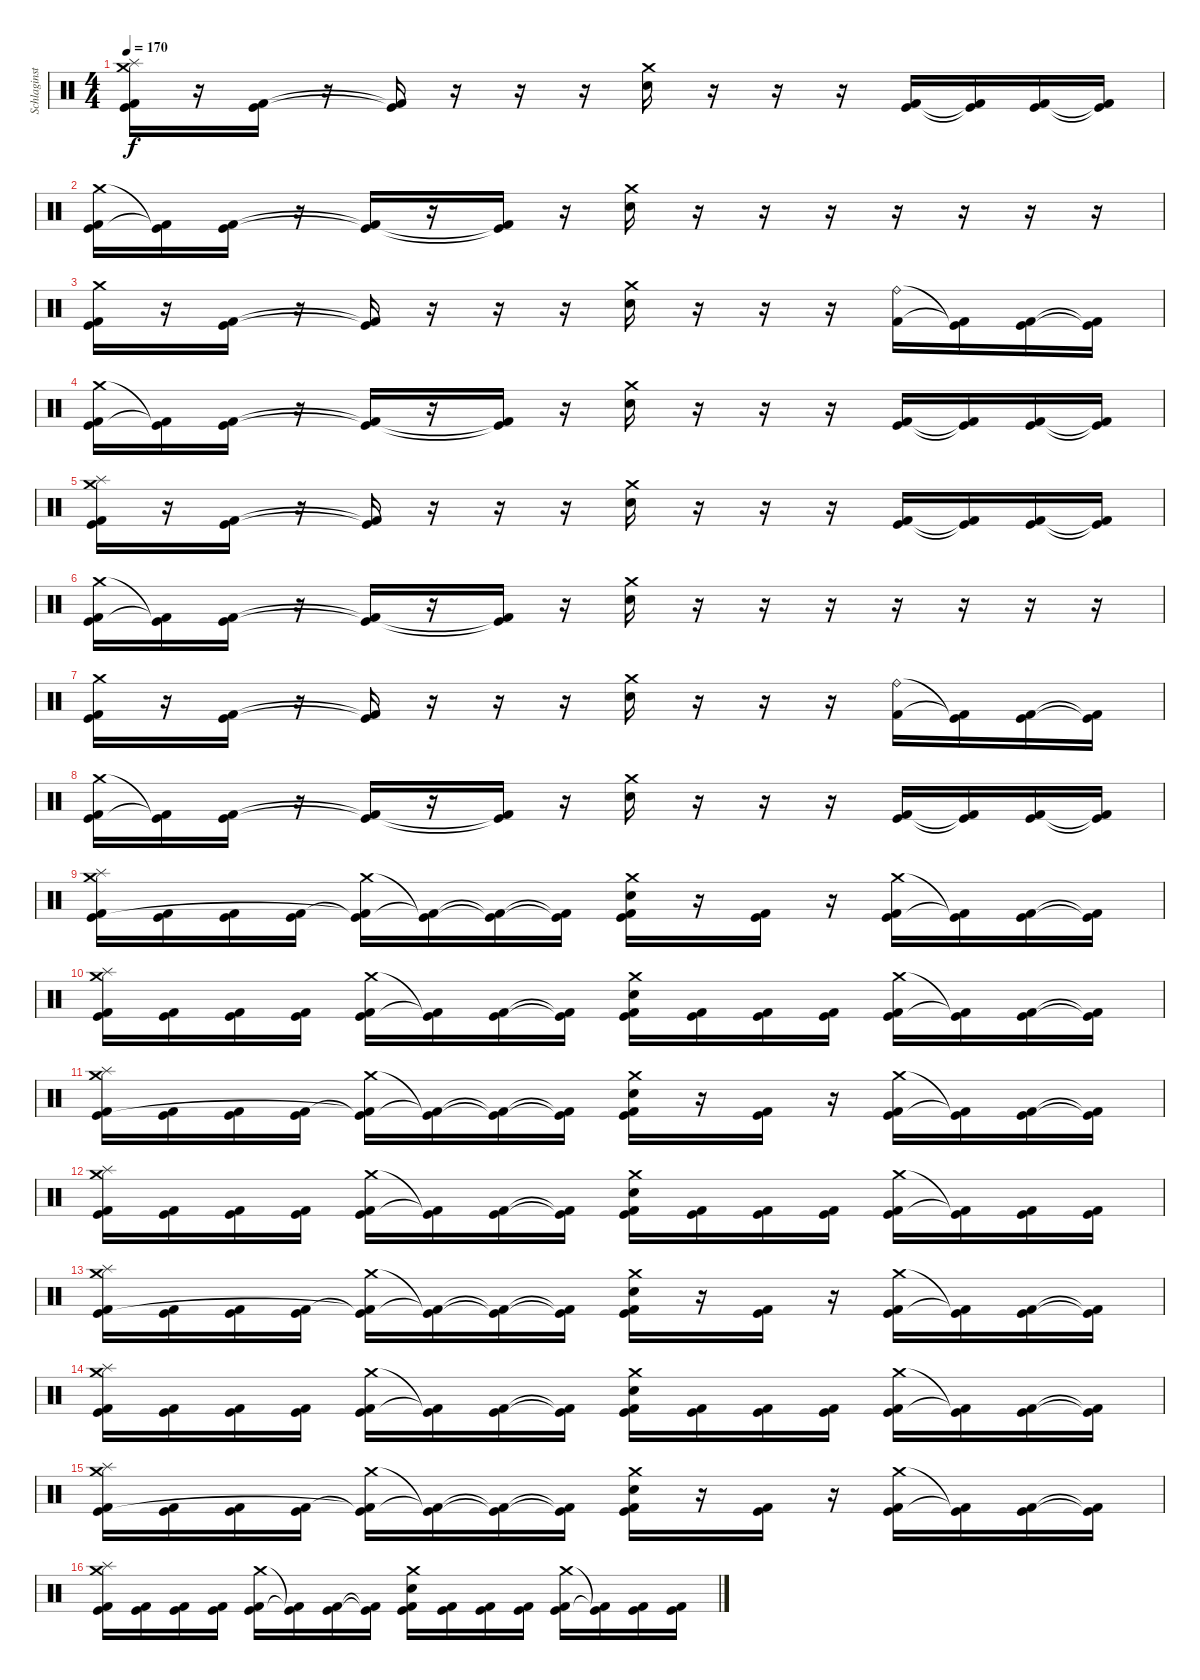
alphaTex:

\track ("Schlaginstrumente - Auswahl" "Schlaginst") {instrument percussion}
\staff {score}
\articulation defaults
\ts (4 4)
\tempo 170
\clef neutral
\ks c
("Crash medium (hit)" "Splash (hit)" "Kick (hit)" "Kick (hit) 2").16{dy f} r.16 ("Kick (hit)" "Kick (hit) 2").16 r.16 ("Kick (hit)"{t} "Kick (hit) 2"{t}).16 r.16 r.16 r.16 ("Crash medium (hit)" "Electric Snare (hit)").16 r.16 r.16 r.16 ("Kick (hit)" "Kick (hit) 2").16 ("Kick (hit)"{t} "Kick (hit) 2"{t}).16 ("Kick (hit)" "Kick (hit) 2").16 ("Kick (hit)"{t} "Kick (hit) 2"{t}).16 |
("Crash medium (hit)" "Kick (hit)" "Kick (hit) 2").16 ("Kick (hit)"{t} "Kick (hit) 2"{t}).16 ("Kick (hit)" "Kick (hit) 2").16 r.16 ("Kick (hit)"{t} "Kick (hit) 2"{t}).16 r.16 ("Kick (hit)"{t} "Kick (hit) 2"{t}).16 r.16 ("Crash medium (hit)" "Electric Snare (hit)").16 r.16 r.16 r.16 r.16 r.16 r.16 r.16 |
("Crash medium (hit)" "Kick (hit)" "Kick (hit) 2").16 r.16 ("Kick (hit)" "Kick (hit) 2").16 r.16 ("Kick (hit)"{t} "Kick (hit) 2"{t}).16 r.16 r.16 r.16 ("Crash medium (hit)" "Electric Snare (hit)").16 r.16 r.16 r.16 ("Ride (bell)" "Kick (hit) 2").16 ("Kick (hit)"{t} "Kick (hit) 2"{t}).16 ("Kick (hit)" "Kick (hit) 2").16 ("Kick (hit)"{t} "Kick (hit) 2"{t}).16 |
("Crash medium (hit)" "Kick (hit)" "Kick (hit) 2").16 ("Kick (hit)"{t} "Kick (hit) 2"{t}).16 ("Kick (hit)" "Kick (hit) 2").16 r.16 ("Kick (hit)"{t} "Kick (hit) 2"{t}).16 r.16 ("Kick (hit)"{t} "Kick (hit) 2"{t}).16 r.16 ("Crash medium (hit)" "Electric Snare (hit)").16 r.16 r.16 r.16 ("Kick (hit)" "Kick (hit) 2").16 ("Kick (hit)"{t} "Kick (hit) 2"{t}).16 ("Kick (hit)" "Kick (hit) 2").16 ("Kick (hit)"{t} "Kick (hit) 2"{t}).16 |
("Crash medium (hit)" "Splash (hit)" "Kick (hit)" "Kick (hit) 2").16 r.16 ("Kick (hit)" "Kick (hit) 2").16 r.16 ("Kick (hit)"{t} "Kick (hit) 2"{t}).16 r.16 r.16 r.16 ("Crash medium (hit)" "Electric Snare (hit)").16 r.16 r.16 r.16 ("Kick (hit)" "Kick (hit) 2").16 ("Kick (hit)"{t} "Kick (hit) 2"{t}).16 ("Kick (hit)" "Kick (hit) 2").16 ("Kick (hit)"{t} "Kick (hit) 2"{t}).16 |
("Crash medium (hit)" "Kick (hit)" "Kick (hit) 2").16 ("Kick (hit)"{t} "Kick (hit) 2"{t}).16 ("Kick (hit)" "Kick (hit) 2").16 r.16 ("Kick (hit)"{t} "Kick (hit) 2"{t}).16 r.16 ("Kick (hit)"{t} "Kick (hit) 2"{t}).16 r.16 ("Crash medium (hit)" "Electric Snare (hit)").16 r.16 r.16 r.16 r.16 r.16 r.16 r.16 |
("Crash medium (hit)" "Kick (hit)" "Kick (hit) 2").16 r.16 ("Kick (hit)" "Kick (hit) 2").16 r.16 ("Kick (hit)"{t} "Kick (hit) 2"{t}).16 r.16 r.16 r.16 ("Crash medium (hit)" "Electric Snare (hit)").16 r.16 r.16 r.16 ("Ride (bell)" "Kick (hit) 2").16 ("Kick (hit)"{t} "Kick (hit) 2"{t}).16 ("Kick (hit)" "Kick (hit) 2").16 ("Kick (hit)"{t} "Kick (hit) 2"{t}).16 |
("Crash medium (hit)" "Kick (hit)" "Kick (hit) 2").16 ("Kick (hit)"{t} "Kick (hit) 2"{t}).16 ("Kick (hit)" "Kick (hit) 2").16 r.16 ("Kick (hit)"{t} "Kick (hit) 2"{t}).16 r.16 ("Kick (hit)"{t} "Kick (hit) 2"{t}).16 r.16 ("Crash medium (hit)" "Electric Snare (hit)").16 r.16 r.16 r.16 ("Kick (hit)" "Kick (hit) 2").16 ("Kick (hit)"{t} "Kick (hit) 2"{t}).16 ("Kick (hit)" "Kick (hit) 2").16 ("Kick (hit)"{t} "Kick (hit) 2"{t}).16 |
("Crash medium (hit)" "Splash (hit)" "Kick (hit)" "Kick (hit) 2").16 ("Kick (hit)" "Kick (hit) 2").16 ("Kick (hit)" "Kick (hit) 2").16 ("Kick (hit)" "Kick (hit) 2").16 ("Crash medium (hit)" "Kick (hit)"{t} "Kick (hit) 2"{t}).16 ("Kick (hit)"{t} "Kick (hit) 2"{t}).16 ("Kick (hit)"{t} "Kick (hit) 2"{t}).16 ("Kick (hit)"{t} "Kick (hit) 2"{t}).16 ("Crash medium (hit)" "Electric Snare (hit)" "Kick (hit)" "Kick (hit) 2").16 r.16 ("Kick (hit)" "Kick (hit) 2").16 r.16 ("Crash medium (hit)" "Kick (hit)" "Kick (hit) 2").16 ("Kick (hit)"{t} "Kick (hit) 2"{t}).16 ("Kick (hit)" "Kick (hit) 2").16 ("Kick (hit)"{t} "Kick (hit) 2"{t}).16 |
("Crash medium (hit)" "Splash (hit)" "Kick (hit)" "Kick (hit) 2").16 ("Kick (hit)" "Kick (hit) 2").16 ("Kick (hit)" "Kick (hit) 2").16 ("Kick (hit)" "Kick (hit) 2").16 ("Crash medium (hit)" "Kick (hit)" "Kick (hit) 2").16 ("Kick (hit)"{t} "Kick (hit) 2"{t}).16 ("Kick (hit)" "Kick (hit) 2").16 ("Kick (hit)"{t} "Kick (hit) 2"{t}).16 ("Crash medium (hit)" "Electric Snare (hit)" "Kick (hit)" "Kick (hit) 2").16 ("Kick (hit)" "Kick (hit) 2").16 ("Kick (hit)" "Kick (hit) 2").16 ("Kick (hit)" "Kick (hit) 2").16 ("Crash medium (hit)" "Kick (hit)" "Kick (hit) 2").16 ("Kick (hit)"{t} "Kick (hit) 2"{t}).16 ("Kick (hit)" "Kick (hit) 2").16 ("Kick (hit)"{t} "Kick (hit) 2"{t}).16 |
("Crash medium (hit)" "Splash (hit)" "Kick (hit)" "Kick (hit) 2").16 ("Kick (hit)" "Kick (hit) 2").16 ("Kick (hit)" "Kick (hit) 2").16 ("Kick (hit)" "Kick (hit) 2").16 ("Crash medium (hit)" "Kick (hit)"{t} "Kick (hit) 2"{t}).16 ("Kick (hit)"{t} "Kick (hit) 2"{t}).16 ("Kick (hit)"{t} "Kick (hit) 2"{t}).16 ("Kick (hit)"{t} "Kick (hit) 2"{t}).16 ("Crash medium (hit)" "Electric Snare (hit)" "Kick (hit)" "Kick (hit) 2").16 r.16 ("Kick (hit)" "Kick (hit) 2").16 r.16 ("Crash medium (hit)" "Kick (hit)" "Kick (hit) 2").16 ("Kick (hit)"{t} "Kick (hit) 2"{t}).16 ("Kick (hit)" "Kick (hit) 2").16 ("Kick (hit)"{t} "Kick (hit) 2"{t}).16 |
("Crash medium (hit)" "Splash (hit)" "Kick (hit)" "Kick (hit) 2").16 ("Kick (hit)" "Kick (hit) 2").16 ("Kick (hit)" "Kick (hit) 2").16 ("Kick (hit)" "Kick (hit) 2").16 ("Crash medium (hit)" "Kick (hit)" "Kick (hit) 2").16 ("Kick (hit)"{t} "Kick (hit) 2"{t}).16 ("Kick (hit)" "Kick (hit) 2").16 ("Kick (hit)"{t} "Kick (hit) 2"{t}).16 ("Crash medium (hit)" "Electric Snare (hit)" "Kick (hit)" "Kick (hit) 2").16 ("Kick (hit)" "Kick (hit) 2").16 ("Kick (hit)" "Kick (hit) 2").16 ("Kick (hit)" "Kick (hit) 2").16 ("Crash medium (hit)" "Kick (hit)" "Kick (hit) 2").16 ("Kick (hit)"{t} "Kick (hit) 2"{t}).16 ("Kick (hit)" "Kick (hit) 2").16 ("Kick (hit)" "Kick (hit) 2").16 |
("Crash medium (hit)" "Splash (hit)" "Kick (hit)" "Kick (hit) 2").16 ("Kick (hit)" "Kick (hit) 2").16 ("Kick (hit)" "Kick (hit) 2").16 ("Kick (hit)" "Kick (hit) 2").16 ("Crash medium (hit)" "Kick (hit)"{t} "Kick (hit) 2"{t}).16 ("Kick (hit)"{t} "Kick (hit) 2"{t}).16 ("Kick (hit)"{t} "Kick (hit) 2"{t}).16 ("Kick (hit)"{t} "Kick (hit) 2"{t}).16 ("Crash medium (hit)" "Electric Snare (hit)" "Kick (hit)" "Kick (hit) 2").16 r.16 ("Kick (hit)" "Kick (hit) 2").16 r.16 ("Crash medium (hit)" "Kick (hit)" "Kick (hit) 2").16 ("Kick (hit)"{t} "Kick (hit) 2"{t}).16 ("Kick (hit)" "Kick (hit) 2").16 ("Kick (hit)"{t} "Kick (hit) 2"{t}).16 |
("Crash medium (hit)" "Splash (hit)" "Kick (hit)" "Kick (hit) 2").16 ("Kick (hit)" "Kick (hit) 2").16 ("Kick (hit)" "Kick (hit) 2").16 ("Kick (hit)" "Kick (hit) 2").16 ("Crash medium (hit)" "Kick (hit)" "Kick (hit) 2").16 ("Kick (hit)"{t} "Kick (hit) 2"{t}).16 ("Kick (hit)" "Kick (hit) 2").16 ("Kick (hit)"{t} "Kick (hit) 2"{t}).16 ("Crash medium (hit)" "Electric Snare (hit)" "Kick (hit)" "Kick (hit) 2").16 ("Kick (hit)" "Kick (hit) 2").16 ("Kick (hit)" "Kick (hit) 2").16 ("Kick (hit)" "Kick (hit) 2").16 ("Crash medium (hit)" "Kick (hit)" "Kick (hit) 2").16 ("Kick (hit)"{t} "Kick (hit) 2"{t}).16 ("Kick (hit)" "Kick (hit) 2").16 ("Kick (hit)"{t} "Kick (hit) 2"{t}).16 |
("Crash medium (hit)" "Splash (hit)" "Kick (hit)" "Kick (hit) 2").16 ("Kick (hit)" "Kick (hit) 2").16 ("Kick (hit)" "Kick (hit) 2").16 ("Kick (hit)" "Kick (hit) 2").16 ("Crash medium (hit)" "Kick (hit)"{t} "Kick (hit) 2"{t}).16 ("Kick (hit)"{t} "Kick (hit) 2"{t}).16 ("Kick (hit)"{t} "Kick (hit) 2"{t}).16 ("Kick (hit)"{t} "Kick (hit) 2"{t}).16 ("Crash medium (hit)" "Electric Snare (hit)" "Kick (hit)" "Kick (hit) 2").16 r.16 ("Kick (hit)" "Kick (hit) 2").16 r.16 ("Crash medium (hit)" "Kick (hit)" "Kick (hit) 2").16 ("Kick (hit)"{t} "Kick (hit) 2"{t}).16 ("Kick (hit)" "Kick (hit) 2").16 ("Kick (hit)"{t} "Kick (hit) 2"{t}).16 |
("Crash medium (hit)" "Splash (hit)" "Kick (hit)" "Kick (hit) 2").16 ("Kick (hit)" "Kick (hit) 2").16 ("Kick (hit)" "Kick (hit) 2").16 ("Kick (hit)" "Kick (hit) 2").16 ("Crash medium (hit)" "Kick (hit)" "Kick (hit) 2").16 ("Kick (hit)"{t} "Kick (hit) 2"{t}).16 ("Kick (hit)" "Kick (hit) 2").16 ("Kick (hit)"{t} "Kick (hit) 2"{t}).16 ("Crash medium (hit)" "Electric Snare (hit)" "Kick (hit)" "Kick (hit) 2").16 ("Kick (hit)" "Kick (hit) 2").16 ("Kick (hit)" "Kick (hit) 2").16 ("Kick (hit)" "Kick (hit) 2").16 ("Crash medium (hit)" "Kick (hit)" "Kick (hit) 2").16 ("Kick (hit)"{t} "Kick (hit) 2"{t}).16 ("Kick (hit)" "Kick (hit) 2").16 ("Kick (hit)" "Kick (hit) 2").16
